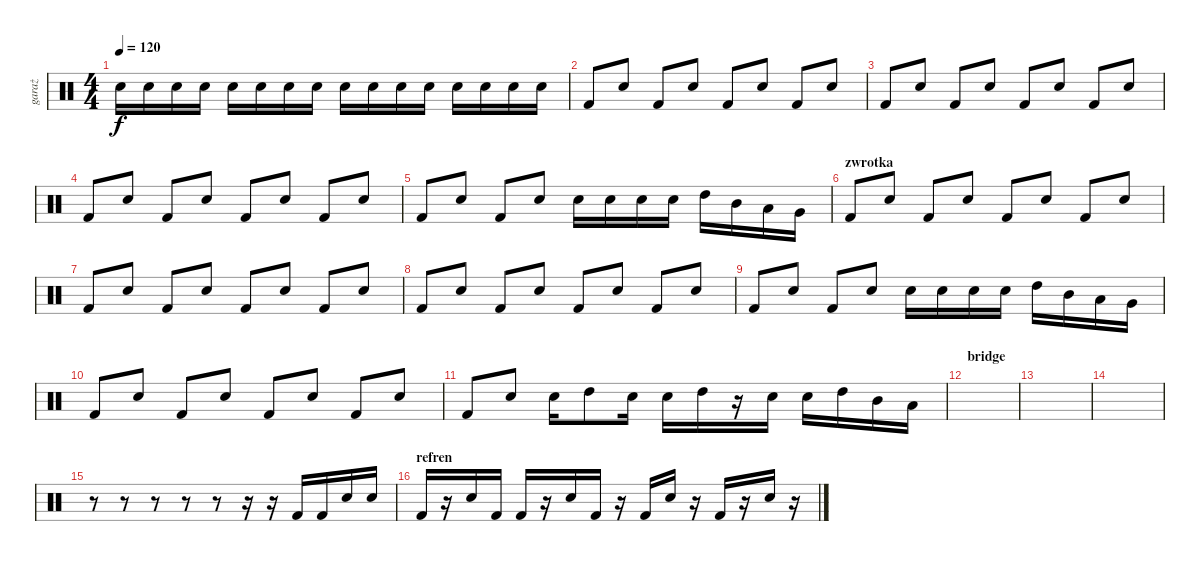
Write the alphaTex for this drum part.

\track ("garaż" "garaż") {instrument percussion}
\staff {score}
\articulation defaults
\ts (4 4)
\tempo 120
\clef neutral
\ks c "Snare (hit) 2".16{dy f} "Snare (hit) 2".16 "Snare (hit) 2".16 "Snare (hit) 2".16 "Snare (hit) 2".16 "Snare (hit) 2".16 "Snare (hit) 2".16 "Snare (hit) 2".16 "Snare (hit) 2".16 "Snare (hit) 2".16 "Snare (hit) 2".16 "Snare (hit) 2".16 "Snare (hit) 2".16 "Snare (hit) 2".16 "Snare (hit) 2".16 "Snare (hit) 2".16
|
"Kick (hit) 2".8 "Snare (hit) 2".8 "Kick (hit) 2".8 "Snare (hit) 2".8 "Kick (hit) 2".8 "Snare (hit) 2".8 "Kick (hit) 2".8 "Snare (hit) 2".8 |
"Kick (hit) 2".8 "Snare (hit) 2".8 "Kick (hit) 2".8 "Snare (hit) 2".8 "Kick (hit) 2".8 "Snare (hit) 2".8 "Kick (hit) 2".8 "Snare (hit) 2".8 |
"Kick (hit) 2".8 "Snare (hit) 2".8 "Kick (hit) 2".8 "Snare (hit) 2".8 "Kick (hit) 2".8 "Snare (hit) 2".8 "Kick (hit) 2".8 "Snare (hit) 2".8 |
"Kick (hit) 2".8 "Snare (hit) 2".8 "Kick (hit) 2".8 "Snare (hit) 2".8 "Snare (hit) 2".16 "Snare (hit) 2".16 "Snare (hit) 2".16 "Snare (hit) 2".16 "High Tom (hit)".16 "Mid Tom (hit)".16 "Low Tom (hit)".16 "Very Low Tom (hit)".16 |
\section ("" "zwrotka")
"Kick (hit) 2".8 "Snare (hit) 2".8 "Kick (hit) 2".8 "Snare (hit) 2".8 "Kick (hit) 2".8 "Snare (hit) 2".8 "Kick (hit) 2".8 "Snare (hit) 2".8 |
"Kick (hit) 2".8 "Snare (hit) 2".8 "Kick (hit) 2".8 "Snare (hit) 2".8 "Kick (hit) 2".8 "Snare (hit) 2".8 "Kick (hit) 2".8 "Snare (hit) 2".8 |
"Kick (hit) 2".8 "Snare (hit) 2".8 "Kick (hit) 2".8 "Snare (hit) 2".8 "Kick (hit) 2".8 "Snare (hit) 2".8 "Kick (hit) 2".8 "Snare (hit) 2".8 |
"Kick (hit) 2".8 "Snare (hit) 2".8 "Kick (hit) 2".8 "Snare (hit) 2".8 "Snare (hit) 2".16 "Snare (hit) 2".16 "Snare (hit) 2".16 "Snare (hit) 2".16 "High Tom (hit)".16 "Mid Tom (hit)".16 "Low Tom (hit)".16 "Very Low Tom (hit)".16 |
"Kick (hit) 2".8 "Snare (hit) 2".8 "Kick (hit) 2".8 "Snare (hit) 2".8 "Kick (hit) 2".8 "Snare (hit) 2".8 "Kick (hit) 2".8 "Snare (hit) 2".8 |
"Kick (hit) 2".8 "Snare (hit) 2".8 "Snare (hit) 2".16 "High Tom (hit)".8 "Snare (hit) 2".16 "Snare (hit) 2".16 "High Tom (hit)".16 r.16 "Snare (hit) 2".16 "Snare (hit) 2".16 "High Tom (hit)".16 "Mid Tom (hit)".16 "Low Tom (hit)".16 |
\section ("" "bridge")
|
|
|
r.8 r.8 r.8 r.8 r.8 r.16 r.16 "Kick (hit) 2".16 "Kick (hit) 2".16 "Snare (hit) 2".16 "Snare (hit) 2".16 |
\section ("" "refren")
"Kick (hit) 2".16 r.16 "Snare (hit) 2".16 "Kick (hit) 2".16 "Kick (hit) 2".16 r.16 "Snare (hit) 2".16 "Kick (hit) 2".16 r.16 "Kick (hit) 2".16 "Snare (hit) 2".16 r.16 "Kick (hit) 2".16 r.16 "Snare (hit) 2".16 r.16
